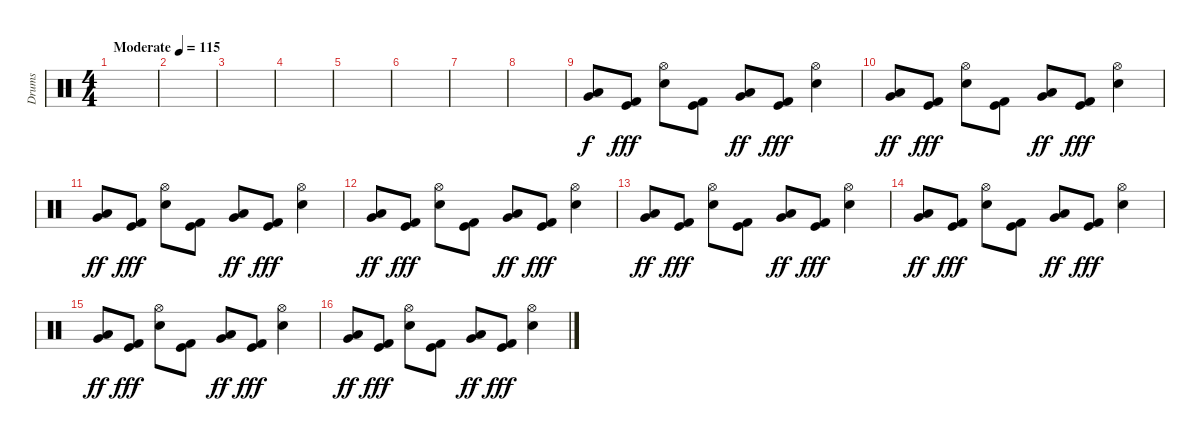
\track ("Drums" "Drums") {instrument percussion}
\staff {score}
\articulation defaults
\ts (4 4)
\tempo (115 "Moderate")
\clef neutral
\ks c
|
|
|
|
|
|
|
|
("Low Tom (hit)" "Very Low Tom (hit)").8{bd 120} ("Kick (hit)" "Kick (hit) 2").8{dy fff} ("Hi-Hat (open)" "Electric Snare (hit)").8 ("Kick (hit)" "Kick (hit) 2").8 ("Low Tom (hit)" "Very Low Tom (hit)").8{bd 120 dy ff} ("Kick (hit)" "Kick (hit) 2").8{dy fff} ("Hi-Hat (open)" "Electric Snare (hit)").4 |
("Low Tom (hit)" "Very Low Tom (hit)").8{bd 120 dy ff} ("Kick (hit)" "Kick (hit) 2").8{dy fff} ("Hi-Hat (open)" "Electric Snare (hit)").8 ("Kick (hit)" "Kick (hit) 2").8 ("Low Tom (hit)" "Very Low Tom (hit)").8{bd 120 dy ff} ("Kick (hit)" "Kick (hit) 2").8{dy fff} ("Hi-Hat (open)" "Electric Snare (hit)").4 |
("Low Tom (hit)" "Very Low Tom (hit)").8{bd 120 dy ff} ("Kick (hit)" "Kick (hit) 2").8{dy fff} ("Hi-Hat (open)" "Electric Snare (hit)").8 ("Kick (hit)" "Kick (hit) 2").8 ("Low Tom (hit)" "Very Low Tom (hit)").8{bd 120 dy ff} ("Kick (hit)" "Kick (hit) 2").8{dy fff} ("Hi-Hat (open)" "Electric Snare (hit)").4 |
("Low Tom (hit)" "Very Low Tom (hit)").8{bd 120 dy ff} ("Kick (hit)" "Kick (hit) 2").8{dy fff} ("Hi-Hat (open)" "Electric Snare (hit)").8 ("Kick (hit)" "Kick (hit) 2").8 ("Low Tom (hit)" "Very Low Tom (hit)").8{bd 120 dy ff} ("Kick (hit)" "Kick (hit) 2").8{dy fff} ("Hi-Hat (open)" "Electric Snare (hit)").4 |
("Low Tom (hit)" "Very Low Tom (hit)").8{bd 120 dy ff} ("Kick (hit)" "Kick (hit) 2").8{dy fff} ("Hi-Hat (open)" "Electric Snare (hit)").8 ("Kick (hit)" "Kick (hit) 2").8 ("Low Tom (hit)" "Very Low Tom (hit)").8{bd 120 dy ff} ("Kick (hit)" "Kick (hit) 2").8{dy fff} ("Hi-Hat (open)" "Electric Snare (hit)").4 |
("Low Tom (hit)" "Very Low Tom (hit)").8{bd 120 dy ff} ("Kick (hit)" "Kick (hit) 2").8{dy fff} ("Hi-Hat (open)" "Electric Snare (hit)").8 ("Kick (hit)" "Kick (hit) 2").8 ("Low Tom (hit)" "Very Low Tom (hit)").8{bd 120 dy ff} ("Kick (hit)" "Kick (hit) 2").8{dy fff} ("Hi-Hat (open)" "Electric Snare (hit)").4 |
("Low Tom (hit)" "Very Low Tom (hit)").8{bd 120 dy ff} ("Kick (hit)" "Kick (hit) 2").8{dy fff} ("Hi-Hat (open)" "Electric Snare (hit)").8 ("Kick (hit)" "Kick (hit) 2").8 ("Low Tom (hit)" "Very Low Tom (hit)").8{bd 120 dy ff} ("Kick (hit)" "Kick (hit) 2").8{dy fff} ("Hi-Hat (open)" "Electric Snare (hit)").4 |
("Low Tom (hit)" "Very Low Tom (hit)").8{bd 120 dy ff} ("Kick (hit)" "Kick (hit) 2").8{dy fff} ("Hi-Hat (open)" "Electric Snare (hit)").8 ("Kick (hit)" "Kick (hit) 2").8 ("Low Tom (hit)" "Very Low Tom (hit)").8{bd 120 dy ff} ("Kick (hit)" "Kick (hit) 2").8{dy fff} ("Hi-Hat (open)" "Electric Snare (hit)").4
